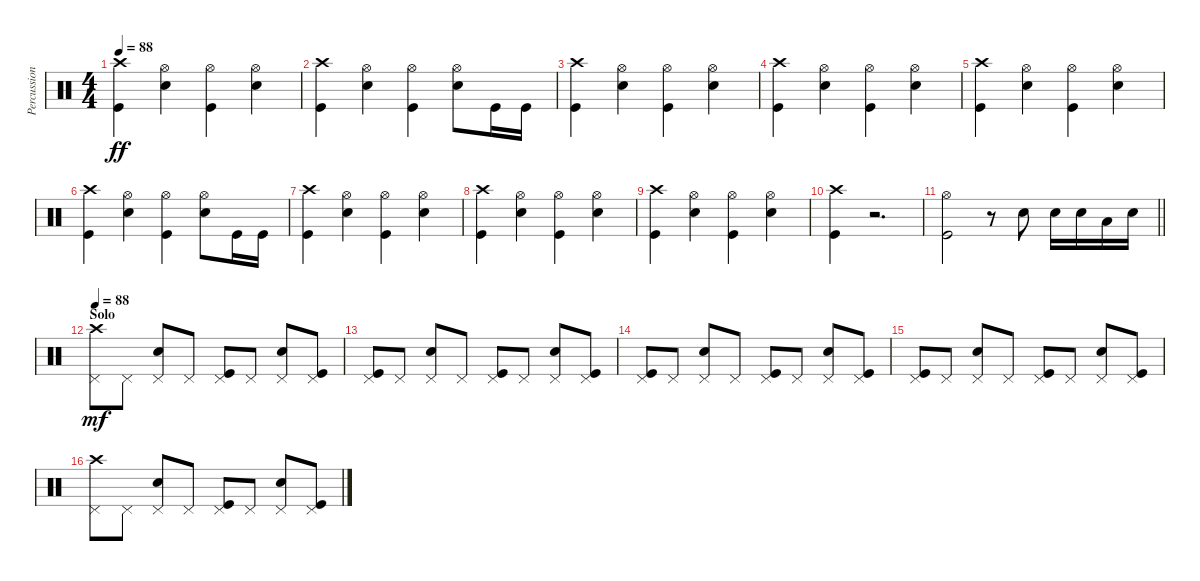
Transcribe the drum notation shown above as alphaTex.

\track ("Percussion" "Percussion") {instrument percussion}
\staff {score}
\articulation defaults
\ts (4 4)
\tempo 88
\clef neutral
\ks c
("Kick (hit)" "Crash high (hit)").4{dy ff} ("Snare (hit) 2" "Hi-Hat (open)").4 ("Kick (hit)" "Hi-Hat (open)").4 ("Snare (hit) 2" "Hi-Hat (open)").4 |
("Kick (hit)" "Crash high (hit)").4 ("Snare (hit) 2" "Hi-Hat (open)").4 ("Kick (hit)" "Hi-Hat (open)").4 ("Snare (hit) 2" "Hi-Hat (open)").8 "Kick (hit)".16 "Kick (hit)".16 |
("Kick (hit)" "Crash high (hit)").4 ("Snare (hit) 2" "Hi-Hat (open)").4 ("Kick (hit)" "Hi-Hat (open)").4 ("Snare (hit) 2" "Hi-Hat (open)").4 |
("Kick (hit)" "Crash high (hit)").4 ("Snare (hit) 2" "Hi-Hat (open)").4 ("Kick (hit)" "Hi-Hat (open)").4 ("Snare (hit) 2" "Hi-Hat (open)").4 |
("Kick (hit)" "Crash high (hit)").4 ("Snare (hit) 2" "Hi-Hat (open)").4 ("Kick (hit)" "Hi-Hat (open)").4 ("Snare (hit) 2" "Hi-Hat (open)").4 |
("Kick (hit)" "Crash high (hit)").4 ("Snare (hit) 2" "Hi-Hat (open)").4 ("Kick (hit)" "Hi-Hat (open)").4 ("Snare (hit) 2" "Hi-Hat (open)").8 "Kick (hit)".16 "Kick (hit)".16 |
("Kick (hit)" "Crash high (hit)").4 ("Snare (hit) 2" "Hi-Hat (open)").4 ("Kick (hit)" "Hi-Hat (open)").4 ("Snare (hit) 2" "Hi-Hat (open)").4 |
("Kick (hit)" "Crash high (hit)").4 ("Snare (hit) 2" "Hi-Hat (open)").4 ("Kick (hit)" "Hi-Hat (open)").4 ("Snare (hit) 2" "Hi-Hat (open)").4 |
("Kick (hit)" "Crash high (hit)").4 ("Snare (hit) 2" "Hi-Hat (open)").4 ("Kick (hit)" "Hi-Hat (open)").4 ("Snare (hit) 2" "Hi-Hat (open)").4 |
("Kick (hit)" "Crash high (hit)").4 r.2{d} |
\barLineRight lightlight
("Kick (hit)" "Hi-Hat (open)").2 r.8 "Snare (hit) 2".8 "Snare (hit) 2".16 "Electric Snare (hit)".16 "Low Floor Tom (hit)".16 "Electric Snare (hit)".16 |
\section ("" "Solo")
\tempo 88
("Crash high (hit)" "Pedal Hi-Hat (hit)").8{dy mf} "Pedal Hi-Hat (hit)".8 ("Snare (hit) 2" "Pedal Hi-Hat (hit)").8 "Pedal Hi-Hat (hit)".8 ("Kick (hit)" "Pedal Hi-Hat (hit)").8 "Pedal Hi-Hat (hit)".8 ("Snare (hit) 2" "Pedal Hi-Hat (hit)").8 ("Kick (hit)" "Pedal Hi-Hat (hit)").8 |
("Kick (hit)" "Pedal Hi-Hat (hit)").8 "Pedal Hi-Hat (hit)".8 ("Snare (hit) 2" "Pedal Hi-Hat (hit)").8 "Pedal Hi-Hat (hit)".8 ("Kick (hit)" "Pedal Hi-Hat (hit)").8 "Pedal Hi-Hat (hit)".8 ("Snare (hit) 2" "Pedal Hi-Hat (hit)").8 ("Kick (hit)" "Pedal Hi-Hat (hit)").8 |
("Kick (hit)" "Pedal Hi-Hat (hit)").8 "Pedal Hi-Hat (hit)".8 ("Snare (hit) 2" "Pedal Hi-Hat (hit)").8 "Pedal Hi-Hat (hit)".8 ("Kick (hit)" "Pedal Hi-Hat (hit)").8 "Pedal Hi-Hat (hit)".8 ("Snare (hit) 2" "Pedal Hi-Hat (hit)").8 ("Kick (hit)" "Pedal Hi-Hat (hit)").8 |
("Kick (hit)" "Pedal Hi-Hat (hit)").8 "Pedal Hi-Hat (hit)".8 ("Snare (hit) 2" "Pedal Hi-Hat (hit)").8 "Pedal Hi-Hat (hit)".8 ("Kick (hit)" "Pedal Hi-Hat (hit)").8 "Pedal Hi-Hat (hit)".8 ("Snare (hit) 2" "Pedal Hi-Hat (hit)").8 ("Kick (hit)" "Pedal Hi-Hat (hit)").8 |
("Crash high (hit)" "Pedal Hi-Hat (hit)").8 "Pedal Hi-Hat (hit)".8 ("Snare (hit) 2" "Pedal Hi-Hat (hit)").8 "Pedal Hi-Hat (hit)".8 ("Kick (hit)" "Pedal Hi-Hat (hit)").8 "Pedal Hi-Hat (hit)".8 ("Snare (hit) 2" "Pedal Hi-Hat (hit)").8 ("Kick (hit)" "Pedal Hi-Hat (hit)").8
